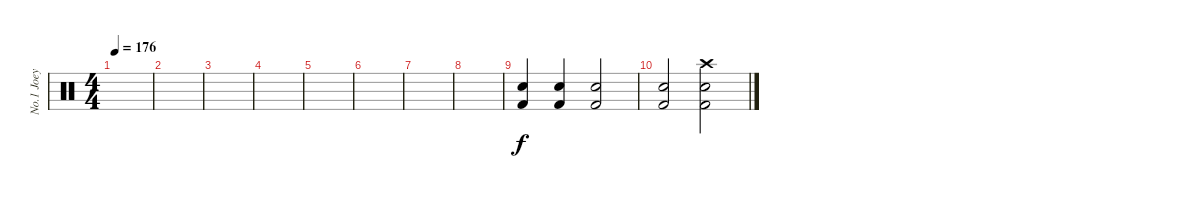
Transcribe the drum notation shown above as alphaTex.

\track ("No.1 Joey" "No.1 Joey") {instrument percussion}
\staff {score}
\articulation defaults
\ts (4 4)
\tempo 176
\clef neutral
\ks c
|
|
|
|
|
|
|
|
("Snare (hit) 2" "Kick (hit) 2").4 ("Snare (hit) 2" "Kick (hit) 2").4 ("Snare (hit) 2" "Kick (hit) 2").2 |
("Snare (hit) 2" "Kick (hit) 2").2 ("Crash high (hit)" "Snare (hit) 2" "Kick (hit) 2").2
